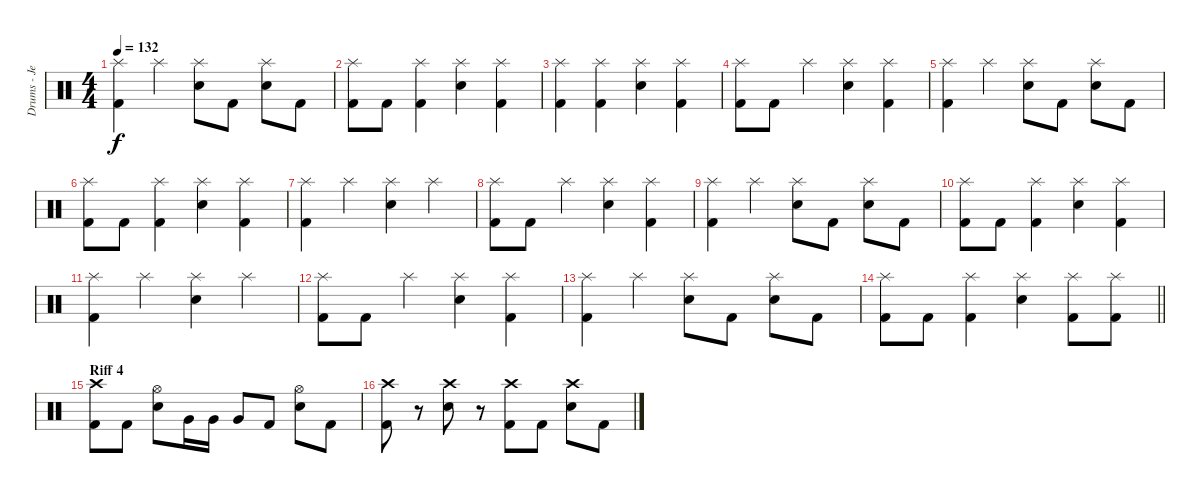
\track ("Drums - Jess Margera" "Drums - Je") {instrument percussion}
\staff {score}
\articulation defaults
\ts (4 4)
\tempo 132
\clef neutral
\ks c
("Splash (hit)" "Kick (hit) 2").4{dy f} "Splash (hit)".4 ("Splash (hit)" "Electric Snare (hit)").8 "Kick (hit) 2".8 ("Splash (hit)" "Electric Snare (hit)").8 "Kick (hit) 2".8 |
("Splash (hit)" "Kick (hit) 2").8 "Kick (hit) 2".8 ("Splash (hit)" "Kick (hit) 2").4 ("Splash (hit)" "Electric Snare (hit)").4 ("Splash (hit)" "Kick (hit) 2").4 |
("Splash (hit)" "Kick (hit) 2").4 ("Splash (hit)" "Kick (hit) 2").4 ("Splash (hit)" "Electric Snare (hit)").4 ("Splash (hit)" "Kick (hit) 2").4 |
("Splash (hit)" "Kick (hit) 2").8 "Kick (hit) 2".8 "Splash (hit)".4 ("Splash (hit)" "Electric Snare (hit)").4 ("Splash (hit)" "Kick (hit) 2").4 |
("Splash (hit)" "Kick (hit) 2").4 "Splash (hit)".4 ("Splash (hit)" "Electric Snare (hit)").8 "Kick (hit) 2".8 ("Splash (hit)" "Electric Snare (hit)").8 "Kick (hit) 2".8 |
("Splash (hit)" "Kick (hit) 2").8 "Kick (hit) 2".8 ("Splash (hit)" "Kick (hit) 2").4 ("Splash (hit)" "Electric Snare (hit)").4 ("Splash (hit)" "Kick (hit) 2").4 |
("Splash (hit)" "Kick (hit) 2").4 "Splash (hit)".4 ("Splash (hit)" "Electric Snare (hit)").4 "Splash (hit)".4 |
("Splash (hit)" "Kick (hit) 2").8 "Kick (hit) 2".8 "Splash (hit)".4 ("Splash (hit)" "Electric Snare (hit)").4 ("Splash (hit)" "Kick (hit) 2").4 |
("Splash (hit)" "Kick (hit) 2").4 "Splash (hit)".4 ("Splash (hit)" "Electric Snare (hit)").8 "Kick (hit) 2".8 ("Splash (hit)" "Electric Snare (hit)").8 "Kick (hit) 2".8 |
("Splash (hit)" "Kick (hit) 2").8 "Kick (hit) 2".8 ("Splash (hit)" "Kick (hit) 2").4 ("Splash (hit)" "Electric Snare (hit)").4 ("Splash (hit)" "Kick (hit) 2").4 |
("Splash (hit)" "Kick (hit) 2").4 "Splash (hit)".4 ("Splash (hit)" "Electric Snare (hit)").4 "Splash (hit)".4 |
("Splash (hit)" "Kick (hit) 2").8 "Kick (hit) 2".8 "Splash (hit)".4 ("Splash (hit)" "Electric Snare (hit)").4 ("Splash (hit)" "Kick (hit) 2").4 |
("Splash (hit)" "Kick (hit) 2").4 "Splash (hit)".4 ("Splash (hit)" "Electric Snare (hit)").8 "Kick (hit) 2".8 ("Splash (hit)" "Electric Snare (hit)").8 "Kick (hit) 2".8 |
\barLineRight lightlight
("Splash (hit)" "Kick (hit) 2").8 "Kick (hit) 2".8 ("Splash (hit)" "Kick (hit) 2").4 ("Splash (hit)" "Electric Snare (hit)").4 ("Splash (hit)" "Kick (hit) 2").8 ("Splash (hit)" "Kick (hit) 2").8 |
\section ("" "Riff 4")
("Crash high (hit)" "Kick (hit) 2").8 "Kick (hit) 2".8 ("Hi-Hat (open)" "Electric Snare (hit)").8 "Very Low Tom (hit)".16 "Very Low Tom (hit)".16 "Very Low Tom (hit)".8 "Kick (hit) 2".8 ("Hi-Hat (open)" "Electric Snare (hit)").8 "Kick (hit) 2".8 |
("Crash high (hit)" "Kick (hit) 2").8 r.8 ("Crash high (hit)" "Electric Snare (hit)").8 r.8 ("Crash high (hit)" "Kick (hit) 2").8 "Kick (hit) 2".8 ("Crash high (hit)" "Electric Snare (hit)").8 "Kick (hit) 2".8
